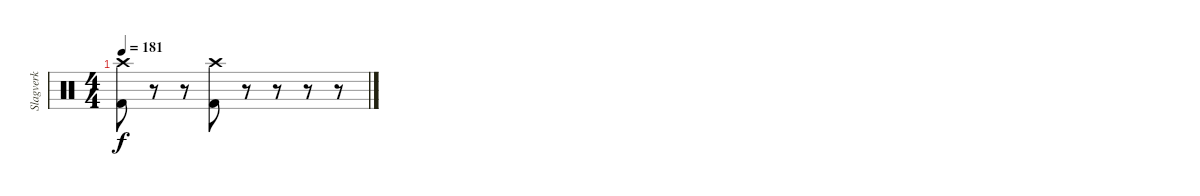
\track ("Slagverk" "Slagverk") {instrument percussion}
\staff {score}
\articulation defaults
\ts (4 4)
\tempo 181
\clef neutral
\ks c
("Crash high (hit)" "Kick (hit) 2").8{dy f} r.8 r.8 ("Crash high (hit)" "Kick (hit) 2").8 r.8 r.8 r.8 r.8
